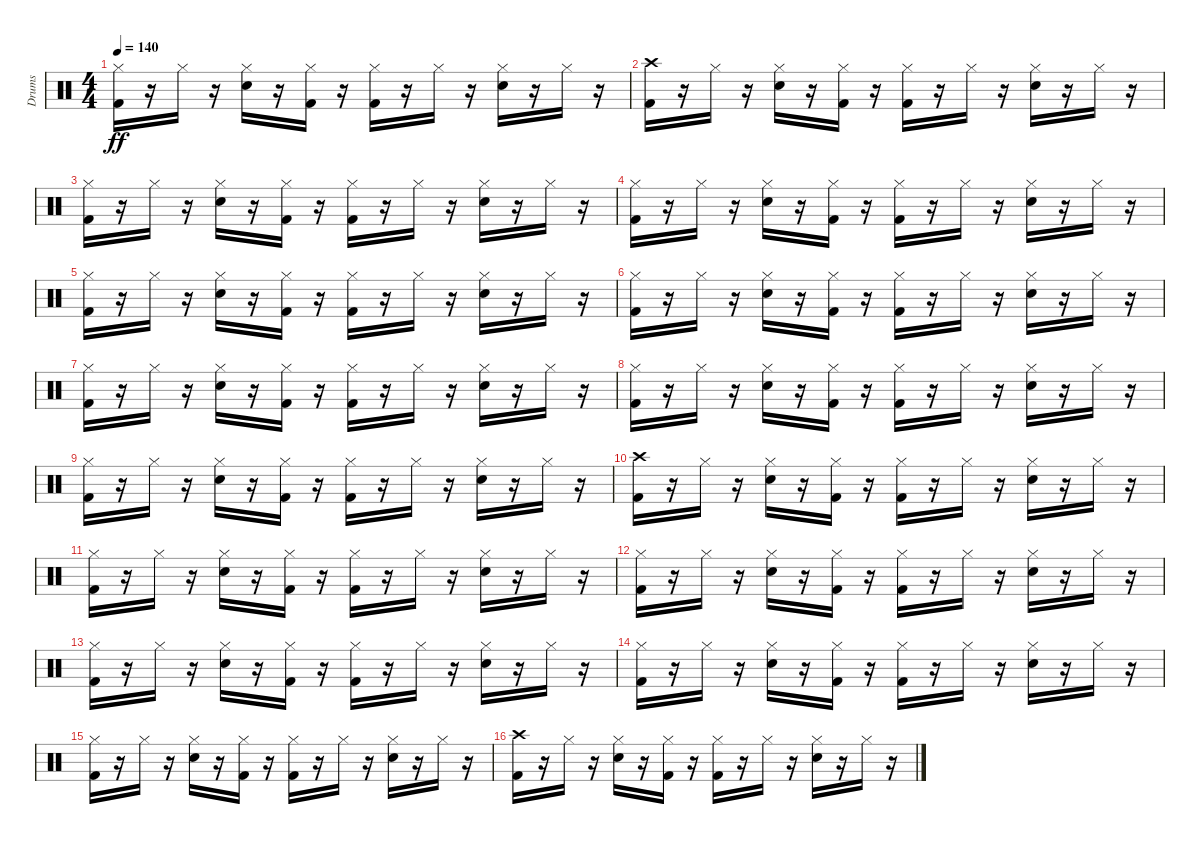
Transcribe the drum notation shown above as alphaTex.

\track ("Drums" "Drums") {instrument percussion}
\staff {score}
\articulation defaults
\ts (4 4)
\tempo 140
\clef neutral
\ks c
("Hi-Hat (closed)" "Kick (hit) 2").16{dy ff} r.16 "Hi-Hat (closed)".16 r.16 ("Hi-Hat (closed)" "Snare (hit) 2").16 r.16 ("Hi-Hat (closed)" "Kick (hit) 2").16 r.16 ("Hi-Hat (closed)" "Kick (hit) 2").16 r.16 "Hi-Hat (closed)".16 r.16 ("Hi-Hat (closed)" "Snare (hit) 2").16 r.16 "Hi-Hat (closed)".16 r.16 |
("Crash high (hit)" "Kick (hit) 2").16 r.16 "Hi-Hat (closed)".16 r.16 ("Hi-Hat (closed)" "Snare (hit) 2").16 r.16 ("Hi-Hat (closed)" "Kick (hit) 2").16 r.16 ("Hi-Hat (closed)" "Kick (hit) 2").16 r.16 "Hi-Hat (closed)".16 r.16 ("Hi-Hat (closed)" "Snare (hit) 2").16 r.16 "Hi-Hat (closed)".16 r.16 |
("Hi-Hat (closed)" "Kick (hit) 2").16 r.16 "Hi-Hat (closed)".16 r.16 ("Hi-Hat (closed)" "Snare (hit) 2").16 r.16 ("Hi-Hat (closed)" "Kick (hit) 2").16 r.16 ("Hi-Hat (closed)" "Kick (hit) 2").16 r.16 "Hi-Hat (closed)".16 r.16 ("Hi-Hat (closed)" "Snare (hit) 2").16 r.16 "Hi-Hat (closed)".16 r.16 |
("Hi-Hat (closed)" "Kick (hit) 2").16 r.16 "Hi-Hat (closed)".16 r.16 ("Hi-Hat (closed)" "Snare (hit) 2").16 r.16 ("Hi-Hat (closed)" "Kick (hit) 2").16 r.16 ("Hi-Hat (closed)" "Kick (hit) 2").16 r.16 "Hi-Hat (closed)".16 r.16 ("Hi-Hat (closed)" "Snare (hit) 2").16 r.16 "Hi-Hat (closed)".16 r.16 |
("Hi-Hat (closed)" "Kick (hit) 2").16 r.16 "Hi-Hat (closed)".16 r.16 ("Hi-Hat (closed)" "Snare (hit) 2").16 r.16 ("Hi-Hat (closed)" "Kick (hit) 2").16 r.16 ("Hi-Hat (closed)" "Kick (hit) 2").16 r.16 "Hi-Hat (closed)".16 r.16 ("Hi-Hat (closed)" "Snare (hit) 2").16 r.16 "Hi-Hat (closed)".16 r.16 |
("Hi-Hat (closed)" "Kick (hit) 2").16 r.16 "Hi-Hat (closed)".16 r.16 ("Hi-Hat (closed)" "Snare (hit) 2").16 r.16 ("Hi-Hat (closed)" "Kick (hit) 2").16 r.16 ("Hi-Hat (closed)" "Kick (hit) 2").16 r.16 "Hi-Hat (closed)".16 r.16 ("Hi-Hat (closed)" "Snare (hit) 2").16 r.16 "Hi-Hat (closed)".16 r.16 |
("Hi-Hat (closed)" "Kick (hit) 2").16 r.16 "Hi-Hat (closed)".16 r.16 ("Hi-Hat (closed)" "Snare (hit) 2").16 r.16 ("Hi-Hat (closed)" "Kick (hit) 2").16 r.16 ("Hi-Hat (closed)" "Kick (hit) 2").16 r.16 "Hi-Hat (closed)".16 r.16 ("Hi-Hat (closed)" "Snare (hit) 2").16 r.16 "Hi-Hat (closed)".16 r.16 |
("Hi-Hat (closed)" "Kick (hit) 2").16 r.16 "Hi-Hat (closed)".16 r.16 ("Hi-Hat (closed)" "Snare (hit) 2").16 r.16 ("Hi-Hat (closed)" "Kick (hit) 2").16 r.16 ("Hi-Hat (closed)" "Kick (hit) 2").16 r.16 "Hi-Hat (closed)".16 r.16 ("Hi-Hat (closed)" "Snare (hit) 2").16 r.16 "Hi-Hat (closed)".16 r.16 |
("Hi-Hat (closed)" "Kick (hit) 2").16 r.16 "Hi-Hat (closed)".16 r.16 ("Hi-Hat (closed)" "Snare (hit) 2").16 r.16 ("Hi-Hat (closed)" "Kick (hit) 2").16 r.16 ("Hi-Hat (closed)" "Kick (hit) 2").16 r.16 "Hi-Hat (closed)".16 r.16 ("Hi-Hat (closed)" "Snare (hit) 2").16 r.16 "Hi-Hat (closed)".16 r.16 |
("Crash high (hit)" "Kick (hit) 2").16 r.16 "Hi-Hat (closed)".16 r.16 ("Hi-Hat (closed)" "Snare (hit) 2").16 r.16 ("Hi-Hat (closed)" "Kick (hit) 2").16 r.16 ("Hi-Hat (closed)" "Kick (hit) 2").16 r.16 "Hi-Hat (closed)".16 r.16 ("Hi-Hat (closed)" "Snare (hit) 2").16 r.16 "Hi-Hat (closed)".16 r.16 |
("Hi-Hat (closed)" "Kick (hit) 2").16 r.16 "Hi-Hat (closed)".16 r.16 ("Hi-Hat (closed)" "Snare (hit) 2").16 r.16 ("Hi-Hat (closed)" "Kick (hit) 2").16 r.16 ("Hi-Hat (closed)" "Kick (hit) 2").16 r.16 "Hi-Hat (closed)".16 r.16 ("Hi-Hat (closed)" "Snare (hit) 2").16 r.16 "Hi-Hat (closed)".16 r.16 |
("Hi-Hat (closed)" "Kick (hit) 2").16 r.16 "Hi-Hat (closed)".16 r.16 ("Hi-Hat (closed)" "Snare (hit) 2").16 r.16 ("Hi-Hat (closed)" "Kick (hit) 2").16 r.16 ("Hi-Hat (closed)" "Kick (hit) 2").16 r.16 "Hi-Hat (closed)".16 r.16 ("Hi-Hat (closed)" "Snare (hit) 2").16 r.16 "Hi-Hat (closed)".16 r.16 |
("Hi-Hat (closed)" "Kick (hit) 2").16 r.16 "Hi-Hat (closed)".16 r.16 ("Hi-Hat (closed)" "Snare (hit) 2").16 r.16 ("Hi-Hat (closed)" "Kick (hit) 2").16 r.16 ("Hi-Hat (closed)" "Kick (hit) 2").16 r.16 "Hi-Hat (closed)".16 r.16 ("Hi-Hat (closed)" "Snare (hit) 2").16 r.16 "Hi-Hat (closed)".16 r.16 |
("Hi-Hat (closed)" "Kick (hit) 2").16 r.16 "Hi-Hat (closed)".16 r.16 ("Hi-Hat (closed)" "Snare (hit) 2").16 r.16 ("Hi-Hat (closed)" "Kick (hit) 2").16 r.16 ("Hi-Hat (closed)" "Kick (hit) 2").16 r.16 "Hi-Hat (closed)".16 r.16 ("Hi-Hat (closed)" "Snare (hit) 2").16 r.16 "Hi-Hat (closed)".16 r.16 |
("Hi-Hat (closed)" "Kick (hit) 2").16 r.16 "Hi-Hat (closed)".16 r.16 ("Hi-Hat (closed)" "Snare (hit) 2").16 r.16 ("Hi-Hat (closed)" "Kick (hit) 2").16 r.16 ("Hi-Hat (closed)" "Kick (hit) 2").16 r.16 "Hi-Hat (closed)".16 r.16 ("Hi-Hat (closed)" "Snare (hit) 2").16 r.16 "Hi-Hat (closed)".16 r.16 |
("Crash high (hit)" "Kick (hit) 2").16 r.16 "Hi-Hat (closed)".16 r.16 ("Hi-Hat (closed)" "Snare (hit) 2").16 r.16 ("Hi-Hat (closed)" "Kick (hit) 2").16 r.16 ("Hi-Hat (closed)" "Kick (hit) 2").16 r.16 "Hi-Hat (closed)".16 r.16 ("Hi-Hat (closed)" "Snare (hit) 2").16 r.16 "Hi-Hat (closed)".16 r.16
